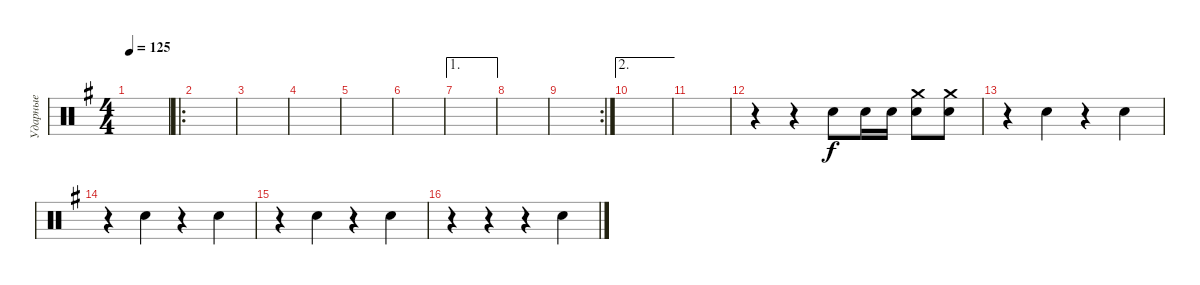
\track ("Ударные" "Ударные") {instrument percussion}
\staff {score}
\articulation defaults
\ts (4 4)
\tempo 125
\clef neutral
\ks g
|
\ro
|
|
|
|
|
\ae 1
|
|
\rc 2
|
\ae 2
|
|
r.4 r.4 "Snare (hit) 2".8 "Snare (hit) 2".16 "Snare (hit) 2".16 ("Snare (hit) 2" "Crash medium (hit)").8 ("Snare (hit) 2" "Crash medium (hit)").8 |
r.4 "Snare (hit) 2".4 r.4 "Snare (hit) 2".4 |
r.4 "Snare (hit) 2".4 r.4 "Snare (hit) 2".4 |
r.4 "Snare (hit) 2".4 r.4 "Snare (hit) 2".4 |
r.4 r.4 r.4 "Snare (hit) 2".4
